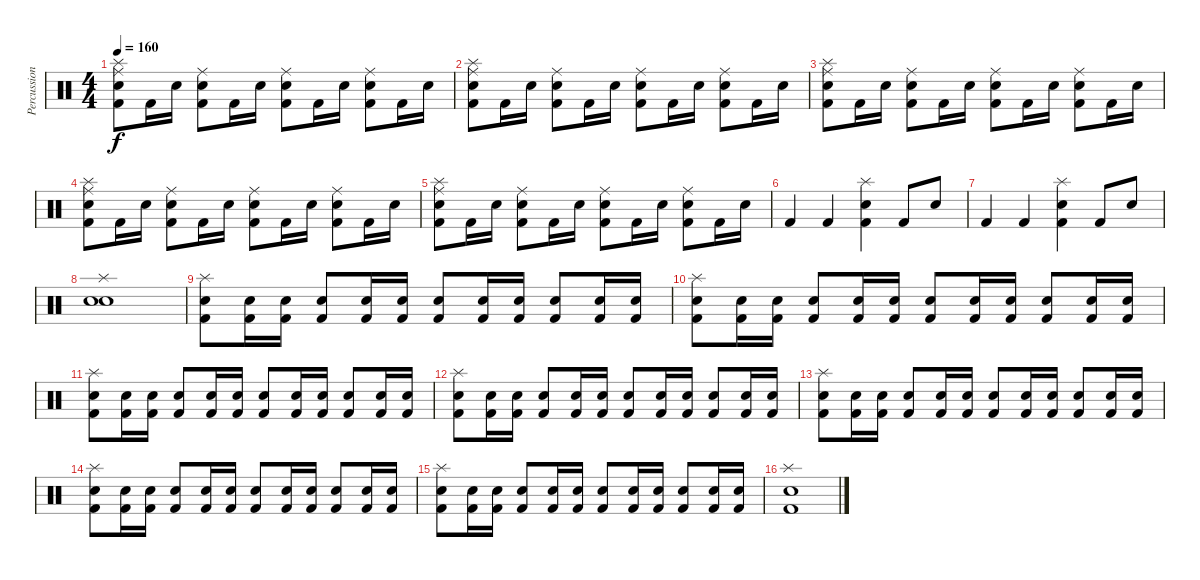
\track ("Percussions" "Percussion") {instrument percussion}
\staff {score}
\articulation defaults
\ts (4 4)
\tempo 160
\clef neutral
\ks c
("Ride (middle)" "Splash (hit)" "Electric Snare (hit)" "Kick (hit) 2").8{dy f} "Kick (hit) 2".16 "Electric Snare (hit)".16 ("Kick (hit) 2" "Ride (middle)" "Electric Snare (hit)").8 "Kick (hit) 2".16 "Electric Snare (hit)".16 ("Kick (hit) 2" "Ride (middle)" "Electric Snare (hit)").8 "Kick (hit) 2".16 "Electric Snare (hit)".16 ("Electric Snare (hit)" "Ride (middle)" "Kick (hit) 2").8 "Kick (hit) 2".16 "Electric Snare (hit)".16 |
("Ride (middle)" "Splash (hit)" "Electric Snare (hit)" "Kick (hit) 2").8 "Kick (hit) 2".16 "Electric Snare (hit)".16 ("Kick (hit) 2" "Ride (middle)" "Electric Snare (hit)").8 "Kick (hit) 2".16 "Electric Snare (hit)".16 ("Kick (hit) 2" "Ride (middle)" "Electric Snare (hit)").8 "Kick (hit) 2".16 "Electric Snare (hit)".16 ("Electric Snare (hit)" "Ride (middle)" "Kick (hit) 2").8 "Kick (hit) 2".16 "Electric Snare (hit)".16 |
("Ride (middle)" "Splash (hit)" "Electric Snare (hit)" "Kick (hit) 2").8 "Kick (hit) 2".16 "Electric Snare (hit)".16 ("Kick (hit) 2" "Ride (middle)" "Electric Snare (hit)").8 "Kick (hit) 2".16 "Electric Snare (hit)".16 ("Kick (hit) 2" "Ride (middle)" "Electric Snare (hit)").8 "Kick (hit) 2".16 "Electric Snare (hit)".16 ("Electric Snare (hit)" "Ride (middle)" "Kick (hit) 2").8 "Kick (hit) 2".16 "Electric Snare (hit)".16 |
("Ride (middle)" "Splash (hit)" "Electric Snare (hit)" "Kick (hit) 2").8 "Kick (hit) 2".16 "Electric Snare (hit)".16 ("Kick (hit) 2" "Ride (middle)" "Electric Snare (hit)").8 "Kick (hit) 2".16 "Electric Snare (hit)".16 ("Kick (hit) 2" "Ride (middle)" "Electric Snare (hit)").8 "Kick (hit) 2".16 "Electric Snare (hit)".16 ("Electric Snare (hit)" "Ride (middle)" "Kick (hit) 2").8 "Kick (hit) 2".16 "Electric Snare (hit)".16 |
("Ride (middle)" "Splash (hit)" "Electric Snare (hit)" "Kick (hit) 2").8 "Kick (hit) 2".16 "Electric Snare (hit)".16 ("Kick (hit) 2" "Ride (middle)" "Electric Snare (hit)").8 "Kick (hit) 2".16 "Electric Snare (hit)".16 ("Kick (hit) 2" "Ride (middle)" "Electric Snare (hit)").8 "Kick (hit) 2".16 "Electric Snare (hit)".16 ("Electric Snare (hit)" "Ride (middle)" "Kick (hit) 2").8 "Kick (hit) 2".16 "Electric Snare (hit)".16 |
"Kick (hit) 2".4 "Kick (hit) 2".4 ("Kick (hit) 2" "Splash (hit)" "Electric Snare (hit)").4 "Kick (hit) 2".8 "Electric Snare (hit)".8 |
"Kick (hit) 2".4 "Kick (hit) 2".4 ("Splash (hit)" "Electric Snare (hit)" "Kick (hit) 2").4 "Kick (hit) 2".8 "Electric Snare (hit)".8 |
("Snare (hit) 2" "Splash (hit)" "Electric Snare (hit)").1 |
("Kick (hit) 2" "Splash (hit)" "Electric Snare (hit)").8 ("Kick (hit) 2" "Electric Snare (hit)").16 ("Kick (hit) 2" "Electric Snare (hit)").16 ("Kick (hit) 2" "Electric Snare (hit)").8 ("Kick (hit) 2" "Electric Snare (hit)").16 ("Kick (hit) 2" "Electric Snare (hit)").16 ("Kick (hit) 2" "Electric Snare (hit)").8 ("Kick (hit) 2" "Electric Snare (hit)").16 ("Kick (hit) 2" "Electric Snare (hit)").16 ("Kick (hit) 2" "Electric Snare (hit)").8 ("Kick (hit) 2" "Electric Snare (hit)").16 ("Kick (hit) 2" "Electric Snare (hit)").16 |
("Kick (hit) 2" "Splash (hit)" "Electric Snare (hit)").8 ("Kick (hit) 2" "Electric Snare (hit)").16 ("Kick (hit) 2" "Electric Snare (hit)").16 ("Kick (hit) 2" "Electric Snare (hit)").8 ("Kick (hit) 2" "Electric Snare (hit)").16 ("Kick (hit) 2" "Electric Snare (hit)").16 ("Kick (hit) 2" "Electric Snare (hit)").8 ("Kick (hit) 2" "Electric Snare (hit)").16 ("Kick (hit) 2" "Electric Snare (hit)").16 ("Kick (hit) 2" "Electric Snare (hit)").8 ("Kick (hit) 2" "Electric Snare (hit)").16 ("Kick (hit) 2" "Electric Snare (hit)").16 |
("Kick (hit) 2" "Splash (hit)" "Electric Snare (hit)").8 ("Kick (hit) 2" "Electric Snare (hit)").16 ("Kick (hit) 2" "Electric Snare (hit)").16 ("Kick (hit) 2" "Electric Snare (hit)").8 ("Kick (hit) 2" "Electric Snare (hit)").16 ("Kick (hit) 2" "Electric Snare (hit)").16 ("Kick (hit) 2" "Electric Snare (hit)").8 ("Kick (hit) 2" "Electric Snare (hit)").16 ("Kick (hit) 2" "Electric Snare (hit)").16 ("Kick (hit) 2" "Electric Snare (hit)").8 ("Kick (hit) 2" "Electric Snare (hit)").16 ("Kick (hit) 2" "Electric Snare (hit)").16 |
("Kick (hit) 2" "Splash (hit)" "Electric Snare (hit)").8 ("Kick (hit) 2" "Electric Snare (hit)").16 ("Kick (hit) 2" "Electric Snare (hit)").16 ("Kick (hit) 2" "Electric Snare (hit)").8 ("Kick (hit) 2" "Electric Snare (hit)").16 ("Kick (hit) 2" "Electric Snare (hit)").16 ("Kick (hit) 2" "Electric Snare (hit)").8 ("Kick (hit) 2" "Electric Snare (hit)").16 ("Kick (hit) 2" "Electric Snare (hit)").16 ("Kick (hit) 2" "Electric Snare (hit)").8 ("Kick (hit) 2" "Electric Snare (hit)").16 ("Kick (hit) 2" "Electric Snare (hit)").16 |
("Kick (hit) 2" "Splash (hit)" "Electric Snare (hit)").8 ("Kick (hit) 2" "Electric Snare (hit)").16 ("Kick (hit) 2" "Electric Snare (hit)").16 ("Kick (hit) 2" "Electric Snare (hit)").8 ("Kick (hit) 2" "Electric Snare (hit)").16 ("Kick (hit) 2" "Electric Snare (hit)").16 ("Kick (hit) 2" "Electric Snare (hit)").8 ("Kick (hit) 2" "Electric Snare (hit)").16 ("Kick (hit) 2" "Electric Snare (hit)").16 ("Kick (hit) 2" "Electric Snare (hit)").8 ("Kick (hit) 2" "Electric Snare (hit)").16 ("Kick (hit) 2" "Electric Snare (hit)").16 |
("Kick (hit) 2" "Splash (hit)" "Electric Snare (hit)").8 ("Kick (hit) 2" "Electric Snare (hit)").16 ("Kick (hit) 2" "Electric Snare (hit)").16 ("Kick (hit) 2" "Electric Snare (hit)").8 ("Kick (hit) 2" "Electric Snare (hit)").16 ("Kick (hit) 2" "Electric Snare (hit)").16 ("Kick (hit) 2" "Electric Snare (hit)").8 ("Kick (hit) 2" "Electric Snare (hit)").16 ("Kick (hit) 2" "Electric Snare (hit)").16 ("Kick (hit) 2" "Electric Snare (hit)").8 ("Kick (hit) 2" "Electric Snare (hit)").16 ("Kick (hit) 2" "Electric Snare (hit)").16 |
("Kick (hit) 2" "Splash (hit)" "Electric Snare (hit)").8 ("Kick (hit) 2" "Electric Snare (hit)").16 ("Kick (hit) 2" "Electric Snare (hit)").16 ("Kick (hit) 2" "Electric Snare (hit)").8 ("Kick (hit) 2" "Electric Snare (hit)").16 ("Kick (hit) 2" "Electric Snare (hit)").16 ("Kick (hit) 2" "Electric Snare (hit)").8 ("Kick (hit) 2" "Electric Snare (hit)").16 ("Kick (hit) 2" "Electric Snare (hit)").16 ("Kick (hit) 2" "Electric Snare (hit)").8 ("Kick (hit) 2" "Electric Snare (hit)").16 ("Kick (hit) 2" "Electric Snare (hit)").16 |
("Kick (hit) 2" "Splash (hit)" "Electric Snare (hit)").1
